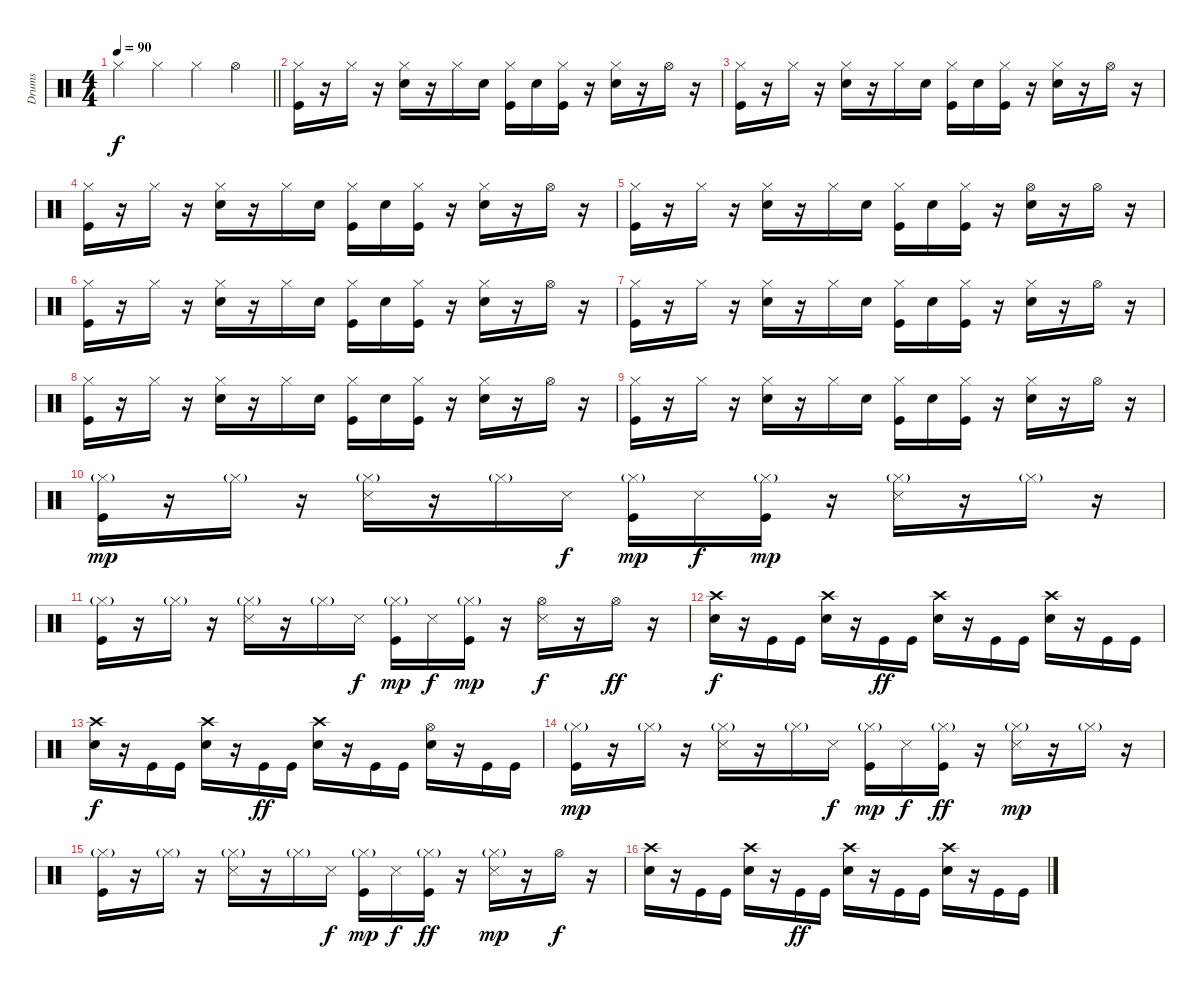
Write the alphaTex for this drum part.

\track ("Drums" "Drums") {instrument percussion}
\staff {score}
\articulation defaults
\ts (4 4)
\tempo 90
\clef neutral
\barLineRight lightlight
\ks c "Hi-Hat (closed)".4{dy f} "Hi-Hat (closed)".4 "Hi-Hat (closed)".4 "Hi-Hat (open)".4
|
("Hi-Hat (closed)" "Kick (hit)").16 r.16 "Hi-Hat (closed)".16 r.16 ("Hi-Hat (closed)" "Snare (hit) 2").16 r.16 "Hi-Hat (closed)".16 "Snare (hit) 2".16 ("Hi-Hat (closed)" "Kick (hit)").16 "Snare (hit) 2".16 ("Hi-Hat (closed)" "Kick (hit)").16 r.16 ("Hi-Hat (closed)" "Snare (hit) 2").16 r.16 "Hi-Hat (open)".16 r.16 |
("Hi-Hat (closed)" "Kick (hit)").16 r.16 "Hi-Hat (closed)".16 r.16 ("Hi-Hat (closed)" "Snare (hit) 2").16 r.16 "Hi-Hat (closed)".16 "Snare (hit) 2".16 ("Hi-Hat (closed)" "Kick (hit)").16 "Snare (hit) 2".16 ("Hi-Hat (closed)" "Kick (hit)").16 r.16 ("Hi-Hat (closed)" "Snare (hit) 2").16 r.16 "Hi-Hat (open)".16 r.16 |
("Hi-Hat (closed)" "Kick (hit)").16 r.16 "Hi-Hat (closed)".16 r.16 ("Hi-Hat (closed)" "Snare (hit) 2").16 r.16 "Hi-Hat (closed)".16 "Snare (hit) 2".16 ("Hi-Hat (closed)" "Kick (hit)").16 "Snare (hit) 2".16 ("Hi-Hat (closed)" "Kick (hit)").16 r.16 ("Hi-Hat (closed)" "Snare (hit) 2").16 r.16 "Hi-Hat (open)".16 r.16 |
("Hi-Hat (closed)" "Kick (hit)").16 r.16 "Hi-Hat (closed)".16 r.16 ("Hi-Hat (closed)" "Snare (hit) 2").16 r.16 "Hi-Hat (closed)".16 "Snare (hit) 2".16 ("Hi-Hat (closed)" "Kick (hit)").16 "Snare (hit) 2".16 ("Hi-Hat (closed)" "Kick (hit)").16 r.16 ("Hi-Hat (open)" "Snare (hit) 2").16 r.16 "Hi-Hat (open)".16 r.16 |
("Hi-Hat (closed)" "Kick (hit)").16 r.16 "Hi-Hat (closed)".16 r.16 ("Hi-Hat (closed)" "Snare (hit) 2").16 r.16 "Hi-Hat (closed)".16 "Snare (hit) 2".16 ("Hi-Hat (closed)" "Kick (hit)").16 "Snare (hit) 2".16 ("Hi-Hat (closed)" "Kick (hit)").16 r.16 ("Hi-Hat (closed)" "Snare (hit) 2").16 r.16 "Hi-Hat (open)".16 r.16 |
("Hi-Hat (closed)" "Kick (hit)").16 r.16 "Hi-Hat (closed)".16 r.16 ("Hi-Hat (closed)" "Snare (hit) 2").16 r.16 "Hi-Hat (closed)".16 "Snare (hit) 2".16 ("Hi-Hat (closed)" "Kick (hit)").16 "Snare (hit) 2".16 ("Hi-Hat (closed)" "Kick (hit)").16 r.16 ("Hi-Hat (closed)" "Snare (hit) 2").16 r.16 "Hi-Hat (open)".16 r.16 |
("Hi-Hat (closed)" "Kick (hit)").16 r.16 "Hi-Hat (closed)".16 r.16 ("Hi-Hat (closed)" "Snare (hit) 2").16 r.16 "Hi-Hat (closed)".16 "Snare (hit) 2".16 ("Hi-Hat (closed)" "Kick (hit)").16 "Snare (hit) 2".16 ("Hi-Hat (closed)" "Kick (hit)").16 r.16 ("Hi-Hat (closed)" "Snare (hit) 2").16 r.16 "Hi-Hat (open)".16 r.16 |
("Hi-Hat (closed)" "Kick (hit)").16 r.16 "Hi-Hat (closed)".16 r.16 ("Hi-Hat (closed)" "Snare (hit) 2").16 r.16 "Hi-Hat (closed)".16 "Snare (hit) 2".16 ("Hi-Hat (closed)" "Kick (hit)").16 "Snare (hit) 2".16 ("Hi-Hat (closed)" "Kick (hit)").16 r.16 ("Hi-Hat (closed)" "Snare (hit) 2").16 r.16 "Hi-Hat (open)".16 r.16 |
("Hi-Hat (closed)"{g} "Kick (hit)").16{dy mp} r.16 "Hi-Hat (closed)"{g}.16 r.16 ("Hi-Hat (closed)"{g} "Snare (side stick) 3").16 r.16 "Hi-Hat (closed)"{g}.16 "Snare (side stick) 3".16{dy f} ("Hi-Hat (closed)"{g} "Kick (hit)").16{dy mp} "Snare (side stick) 3".16{dy f} ("Hi-Hat (closed)"{g} "Kick (hit)").16{dy mp} r.16 ("Hi-Hat (closed)"{g} "Snare (side stick) 3").16 r.16 "Hi-Hat (closed)"{g}.16 r.16 |
("Hi-Hat (closed)"{g} "Kick (hit)").16 r.16 "Hi-Hat (closed)"{g}.16 r.16 ("Hi-Hat (closed)"{g} "Snare (side stick) 3").16 r.16 "Hi-Hat (closed)"{g}.16 "Snare (side stick) 3".16{dy f} ("Hi-Hat (closed)"{g} "Kick (hit)").16{dy mp} "Snare (side stick) 3".16{dy f} ("Hi-Hat (closed)"{g} "Kick (hit)").16{dy mp} r.16 ("Hi-Hat (open)" "Snare (side stick) 3").16{dy f} r.16 "Hi-Hat (open)".16{dy ff} r.16 |
("Crash high (hit)" "Snare (hit) 2").16{dy f} r.16 "Kick (hit)".16 "Kick (hit)".16 ("Crash high (hit)" "Snare (hit) 2").16 r.16 "Kick (hit)".16{dy ff} "Kick (hit)".16 ("Crash high (hit)" "Snare (hit) 2").16 r.16 "Kick (hit)".16 "Kick (hit)".16 ("Crash high (hit)" "Snare (hit) 2").16 r.16 "Kick (hit)".16 "Kick (hit)".16 |
("Crash high (hit)" "Snare (hit) 2").16{dy f} r.16 "Kick (hit)".16 "Kick (hit)".16 ("Crash high (hit)" "Snare (hit) 2").16 r.16 "Kick (hit)".16{dy ff} "Kick (hit)".16 ("Crash high (hit)" "Snare (hit) 2").16 r.16 "Kick (hit)".16 "Kick (hit)".16 ("Hi-Hat (open)" "Snare (hit) 2").16 r.16 "Kick (hit)".16 "Kick (hit)".16 |
("Hi-Hat (closed)"{g} "Kick (hit)").16{dy mp} r.16 "Hi-Hat (closed)"{g}.16 r.16 ("Hi-Hat (closed)"{g} "Snare (side stick) 3").16 r.16 "Hi-Hat (closed)"{g}.16 "Snare (side stick) 3".16{dy f} ("Hi-Hat (closed)"{g} "Kick (hit)").16{dy mp} "Snare (side stick) 3".16{dy f} ("Hi-Hat (closed)"{g} "Kick (hit)").16{dy ff} r.16 ("Hi-Hat (closed)"{g} "Snare (side stick) 3").16{dy mp} r.16 "Hi-Hat (closed)"{g}.16 r.16 |
("Hi-Hat (closed)"{g} "Kick (hit)").16 r.16 "Hi-Hat (closed)"{g}.16 r.16 ("Hi-Hat (closed)"{g} "Snare (side stick) 3").16 r.16 "Hi-Hat (closed)"{g}.16 "Snare (side stick) 3".16{dy f} ("Hi-Hat (closed)"{g} "Kick (hit)").16{dy mp} "Snare (side stick) 3".16{dy f} ("Hi-Hat (closed)"{g} "Kick (hit)").16{dy ff} r.16 ("Hi-Hat (closed)"{g} "Snare (side stick) 3").16{dy mp} r.16 "Hi-Hat (open)".16{dy f} r.16 |
("Crash high (hit)" "Snare (hit) 2").16 r.16 "Kick (hit)".16 "Kick (hit)".16 ("Crash high (hit)" "Snare (hit) 2").16 r.16 "Kick (hit)".16{dy ff} "Kick (hit)".16 ("Crash high (hit)" "Snare (hit) 2").16 r.16 "Kick (hit)".16 "Kick (hit)".16 ("Crash high (hit)" "Snare (hit) 2").16 r.16 "Kick (hit)".16 "Kick (hit)".16
